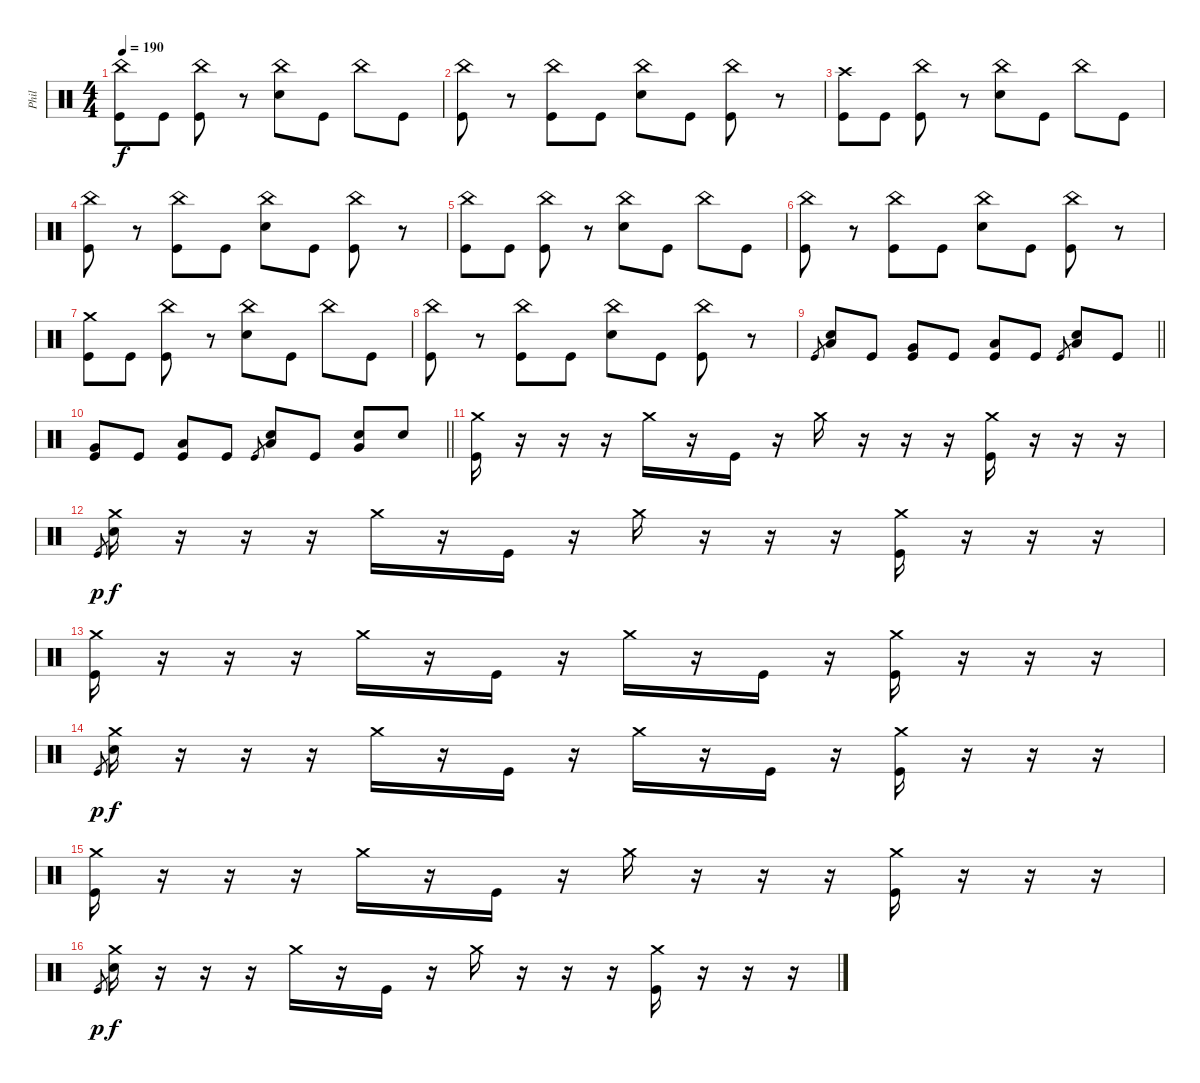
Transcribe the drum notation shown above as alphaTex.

\track ("Phil" "Phil") {instrument percussion}
\staff {score}
\articulation defaults
\ts (4 4)
\tempo 190
\clef neutral
\ks c
("China (hit)" "Kick (hit)").8{dy f} "Kick (hit)".8 ("China (hit)" "Kick (hit)").8 r.8 ("China (hit)" "Electric Snare (hit)").8 "Kick (hit)".8 "China (hit)".8 "Kick (hit)".8 |
("China (hit)" "Kick (hit)").8 r.8 ("China (hit)" "Kick (hit)").8 "Kick (hit)".8 ("China (hit)" "Electric Snare (hit)").8 "Kick (hit)".8 ("China (hit)" "Kick (hit)").8 r.8 |
("Crash high (hit)" "Kick (hit)").8 "Kick (hit)".8 ("China (hit)" "Kick (hit)").8 r.8 ("China (hit)" "Electric Snare (hit)").8 "Kick (hit)".8 "China (hit)".8 "Kick (hit)".8 |
("China (hit)" "Kick (hit)").8 r.8 ("China (hit)" "Kick (hit)").8 "Kick (hit)".8 ("China (hit)" "Electric Snare (hit)").8 "Kick (hit)".8 ("China (hit)" "Kick (hit)").8 r.8 |
("China (hit)" "Kick (hit)").8 "Kick (hit)".8 ("China (hit)" "Kick (hit)").8 r.8 ("China (hit)" "Electric Snare (hit)").8 "Kick (hit)".8 "China (hit)".8 "Kick (hit)".8 |
("China (hit)" "Kick (hit)").8 r.8 ("China (hit)" "Kick (hit)").8 "Kick (hit)".8 ("China (hit)" "Electric Snare (hit)").8 "Kick (hit)".8 ("China (hit)" "Kick (hit)").8 r.8 |
("Crash medium (hit)" "Kick (hit)").8 "Kick (hit)".8 ("China (hit)" "Kick (hit)").8 r.8 ("China (hit)" "Electric Snare (hit)").8 "Kick (hit)".8 "China (hit)".8 "Kick (hit)".8 |
("China (hit)" "Kick (hit)").8 r.8 ("China (hit)" "Kick (hit)").8 "Kick (hit)".8 ("China (hit)" "Electric Snare (hit)").8 "Kick (hit)".8 ("China (hit)" "Kick (hit)").8 r.8 |
\barLineRight lightlight "Kick (hit)".8{gr}
("Electric Snare (hit)" "Low Tom (hit)").8 "Kick (hit)".8 ("Kick (hit)" "Very Low Tom (hit)").8 "Kick (hit)".8 ("Kick (hit)" "Low Floor Tom (hit)").8 "Kick (hit)".8 "Kick (hit)".8{gr} ("Electric Snare (hit)" "Low Tom (hit)").8 "Kick (hit)".8 |
\barLineRight lightlight
("Kick (hit)" "Very Low Tom (hit)").8 "Kick (hit)".8 ("Kick (hit)" "Low Floor Tom (hit)").8 "Kick (hit)".8 "Kick (hit)".8{gr} ("Electric Snare (hit)" "Low Tom (hit)").8 "Kick (hit)".8 ("Electric Snare (hit)" "Very Low Tom (hit)").8 "Electric Snare (hit)".8 |
("Crash medium (hit)" "Kick (hit)").16 r.16 r.16 r.16 "Crash medium (hit)".16 r.16 "Kick (hit)".16 r.16 "Crash medium (hit)".16 r.16 r.16 r.16 ("Crash medium (hit)" "Kick (hit)").16 r.16 r.16 r.16 |
"Kick (hit)".8{gr dy p} ("Crash medium (hit)" "Electric Snare (hit)").16{dy f} r.16 r.16 r.16 "Crash medium (hit)".16 r.16 "Kick (hit)".16 r.16 "Crash medium (hit)".16 r.16 r.16 r.16 ("Crash medium (hit)" "Kick (hit)").16 r.16 r.16 r.16 |
("Crash medium (hit)" "Kick (hit)").16 r.16 r.16 r.16 "Crash medium (hit)".16 r.16 "Kick (hit)".16 r.16 "Crash medium (hit)".16 r.16 "Kick (hit)".16 r.16 ("Crash medium (hit)" "Kick (hit)").16 r.16 r.16 r.16 |
"Kick (hit)".8{gr dy p} ("Crash medium (hit)" "Electric Snare (hit)").16{dy f} r.16 r.16 r.16 "Crash medium (hit)".16 r.16 "Kick (hit)".16 r.16 "Crash medium (hit)".16 r.16 "Kick (hit)".16 r.16 ("Crash medium (hit)" "Kick (hit)").16 r.16 r.16 r.16 |
("Crash medium (hit)" "Kick (hit)").16 r.16 r.16 r.16 "Crash medium (hit)".16 r.16 "Kick (hit)".16 r.16 "Crash medium (hit)".16 r.16 r.16 r.16 ("Crash medium (hit)" "Kick (hit)").16 r.16 r.16 r.16 |
"Kick (hit)".8{gr dy p} ("Crash medium (hit)" "Electric Snare (hit)").16{dy f} r.16 r.16 r.16 "Crash medium (hit)".16 r.16 "Kick (hit)".16 r.16 "Crash medium (hit)".16 r.16 r.16 r.16 ("Crash medium (hit)" "Kick (hit)").16 r.16 r.16 r.16
